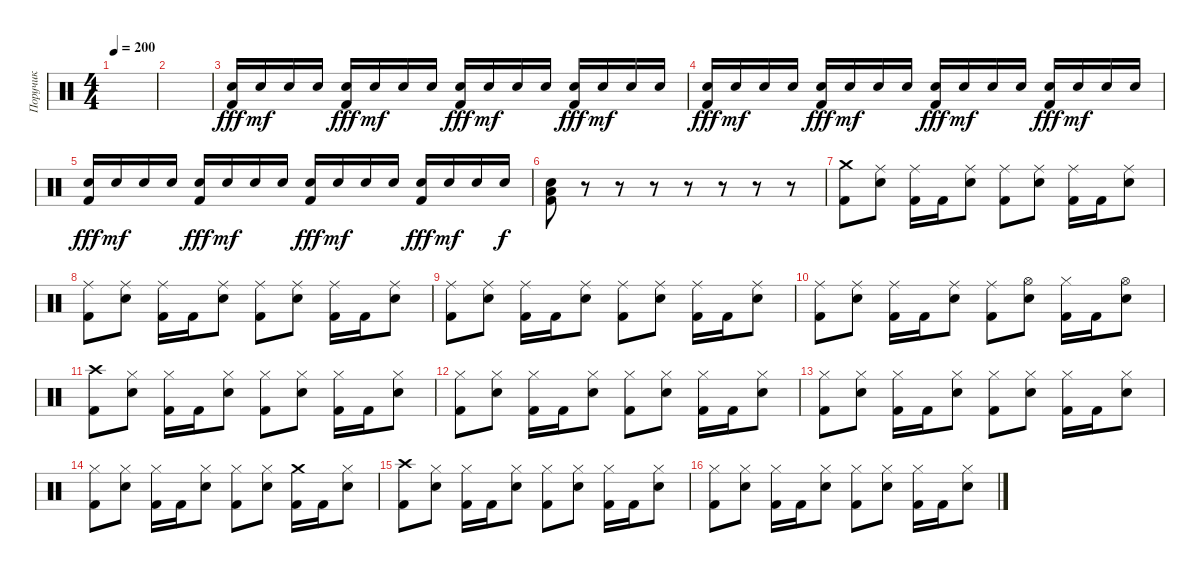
\track ("Поручик" "Поручик") {instrument percussion}
\staff {score}
\articulation defaults
\ts (4 4)
\tempo 200
\clef neutral
\ks c
|
|
("Electric Snare (hit)" "Kick (hit) 2").16{dy fff} "Electric Snare (hit)".16{dy mf} "Electric Snare (hit)".16 "Electric Snare (hit)".16 ("Electric Snare (hit)" "Kick (hit) 2").16{dy fff} "Electric Snare (hit)".16{dy mf} "Electric Snare (hit)".16 "Electric Snare (hit)".16 ("Electric Snare (hit)" "Kick (hit) 2").16{dy fff} "Electric Snare (hit)".16{dy mf} "Electric Snare (hit)".16 "Electric Snare (hit)".16 ("Electric Snare (hit)" "Kick (hit) 2").16{dy fff} "Electric Snare (hit)".16{dy mf} "Electric Snare (hit)".16 "Electric Snare (hit)".16 |
("Electric Snare (hit)" "Kick (hit) 2").16{dy fff} "Electric Snare (hit)".16{dy mf} "Electric Snare (hit)".16 "Electric Snare (hit)".16 ("Electric Snare (hit)" "Kick (hit) 2").16{dy fff} "Electric Snare (hit)".16{dy mf} "Electric Snare (hit)".16 "Electric Snare (hit)".16 ("Electric Snare (hit)" "Kick (hit) 2").16{dy fff} "Electric Snare (hit)".16{dy mf} "Electric Snare (hit)".16 "Electric Snare (hit)".16 ("Electric Snare (hit)" "Kick (hit) 2").16{dy fff} "Electric Snare (hit)".16{dy mf} "Electric Snare (hit)".16 "Electric Snare (hit)".16 |
("Electric Snare (hit)" "Kick (hit) 2").16{dy fff} "Electric Snare (hit)".16{dy mf} "Electric Snare (hit)".16 "Electric Snare (hit)".16 ("Electric Snare (hit)" "Kick (hit) 2").16{dy fff} "Electric Snare (hit)".16{dy mf} "Electric Snare (hit)".16 "Electric Snare (hit)".16 ("Electric Snare (hit)" "Kick (hit) 2").16{dy fff} "Electric Snare (hit)".16{dy mf} "Electric Snare (hit)".16 "Electric Snare (hit)".16 ("Electric Snare (hit)" "Kick (hit) 2").16{dy fff} "Electric Snare (hit)".16{dy mf} "Electric Snare (hit)".16 "Electric Snare (hit)".16{dy f} |
("Electric Snare (hit)" "Low Floor Tom (hit)" "Kick (hit) 2").8 r.8 r.8 r.8 r.8 r.8 r.8 r.8 |
("Crash medium (hit)" "Kick (hit) 2").8 ("Ride (middle)" "Electric Snare (hit)").8 ("Ride (middle)" "Kick (hit) 2").16 "Kick (hit) 2".16 ("Ride (middle)" "Electric Snare (hit)").8 ("Ride (middle)" "Kick (hit) 2").8 ("Ride (middle)" "Electric Snare (hit)").8 ("Ride (middle)" "Kick (hit) 2").16 "Kick (hit) 2".16 ("Ride (middle)" "Electric Snare (hit)").8 |
("Ride (middle)" "Kick (hit) 2").8 ("Ride (middle)" "Electric Snare (hit)").8 ("Ride (middle)" "Kick (hit) 2").16 "Kick (hit) 2".16 ("Ride (middle)" "Electric Snare (hit)").8 ("Ride (middle)" "Kick (hit) 2").8 ("Ride (middle)" "Electric Snare (hit)").8 ("Ride (middle)" "Kick (hit) 2").16 "Kick (hit) 2".16 ("Ride (middle)" "Electric Snare (hit)").8 |
("Ride (middle)" "Kick (hit) 2").8 ("Ride (middle)" "Electric Snare (hit)").8 ("Ride (middle)" "Kick (hit) 2").16 "Kick (hit) 2".16 ("Ride (middle)" "Electric Snare (hit)").8 ("Ride (middle)" "Kick (hit) 2").8 ("Ride (middle)" "Electric Snare (hit)").8 ("Ride (middle)" "Kick (hit) 2").16 "Kick (hit) 2".16 ("Ride (middle)" "Electric Snare (hit)").8 |
("Ride (middle)" "Kick (hit) 2").8 ("Ride (middle)" "Electric Snare (hit)").8 ("Ride (middle)" "Kick (hit) 2").16 "Kick (hit) 2".16 ("Ride (middle)" "Electric Snare (hit)").8 ("Ride (middle)" "Kick (hit) 2").8 ("Hi-Hat (open)" "Electric Snare (hit)").8 ("Hi-Hat (closed)" "Kick (hit) 2").16 "Kick (hit) 2".16 ("Hi-Hat (open)" "Electric Snare (hit)").8 |
("Crash high (hit)" "Kick (hit) 2").8 ("Hi-Hat (closed)" "Electric Snare (hit)").8 ("Hi-Hat (closed)" "Kick (hit) 2").16 "Kick (hit) 2".16 ("Hi-Hat (closed)" "Electric Snare (hit)").8 ("Hi-Hat (closed)" "Kick (hit) 2").8 ("Hi-Hat (closed)" "Electric Snare (hit)").8 ("Hi-Hat (closed)" "Kick (hit) 2").16 "Kick (hit) 2".16 ("Hi-Hat (closed)" "Electric Snare (hit)").8 |
("Hi-Hat (closed)" "Kick (hit) 2").8 ("Hi-Hat (closed)" "Electric Snare (hit)").8 ("Hi-Hat (closed)" "Kick (hit) 2").16 "Kick (hit) 2".16 ("Hi-Hat (closed)" "Electric Snare (hit)").8 ("Hi-Hat (closed)" "Kick (hit) 2").8 ("Hi-Hat (closed)" "Electric Snare (hit)").8 ("Hi-Hat (closed)" "Kick (hit) 2").16 "Kick (hit) 2".16 ("Hi-Hat (closed)" "Electric Snare (hit)").8 |
("Hi-Hat (closed)" "Kick (hit) 2").8 ("Hi-Hat (closed)" "Electric Snare (hit)").8 ("Hi-Hat (closed)" "Kick (hit) 2").16 "Kick (hit) 2".16 ("Hi-Hat (closed)" "Electric Snare (hit)").8 ("Hi-Hat (closed)" "Kick (hit) 2").8 ("Hi-Hat (closed)" "Electric Snare (hit)").8 ("Hi-Hat (closed)" "Kick (hit) 2").16 "Kick (hit) 2".16 ("Hi-Hat (closed)" "Electric Snare (hit)").8 |
("Hi-Hat (closed)" "Kick (hit) 2").8 ("Hi-Hat (closed)" "Electric Snare (hit)").8 ("Hi-Hat (closed)" "Kick (hit) 2").16 "Kick (hit) 2".16 ("Hi-Hat (closed)" "Electric Snare (hit)").8 ("Hi-Hat (closed)" "Kick (hit) 2").8 ("Hi-Hat (closed)" "Electric Snare (hit)").8 ("Crash medium (hit)" "Kick (hit) 2").16 "Kick (hit) 2".16 ("Hi-Hat (closed)" "Electric Snare (hit)").8 |
("Crash high (hit)" "Kick (hit) 2").8 ("Hi-Hat (closed)" "Electric Snare (hit)").8 ("Hi-Hat (closed)" "Kick (hit) 2").16 "Kick (hit) 2".16 ("Hi-Hat (closed)" "Electric Snare (hit)").8 ("Hi-Hat (closed)" "Kick (hit) 2").8 ("Hi-Hat (closed)" "Electric Snare (hit)").8 ("Hi-Hat (closed)" "Kick (hit) 2").16 "Kick (hit) 2".16 ("Hi-Hat (closed)" "Electric Snare (hit)").8 |
("Hi-Hat (closed)" "Kick (hit) 2").8 ("Hi-Hat (closed)" "Electric Snare (hit)").8 ("Hi-Hat (closed)" "Kick (hit) 2").16 "Kick (hit) 2".16 ("Hi-Hat (closed)" "Electric Snare (hit)").8 ("Hi-Hat (closed)" "Kick (hit) 2").8 ("Hi-Hat (closed)" "Electric Snare (hit)").8 ("Hi-Hat (closed)" "Kick (hit) 2").16 "Kick (hit) 2".16 ("Hi-Hat (closed)" "Electric Snare (hit)").8
